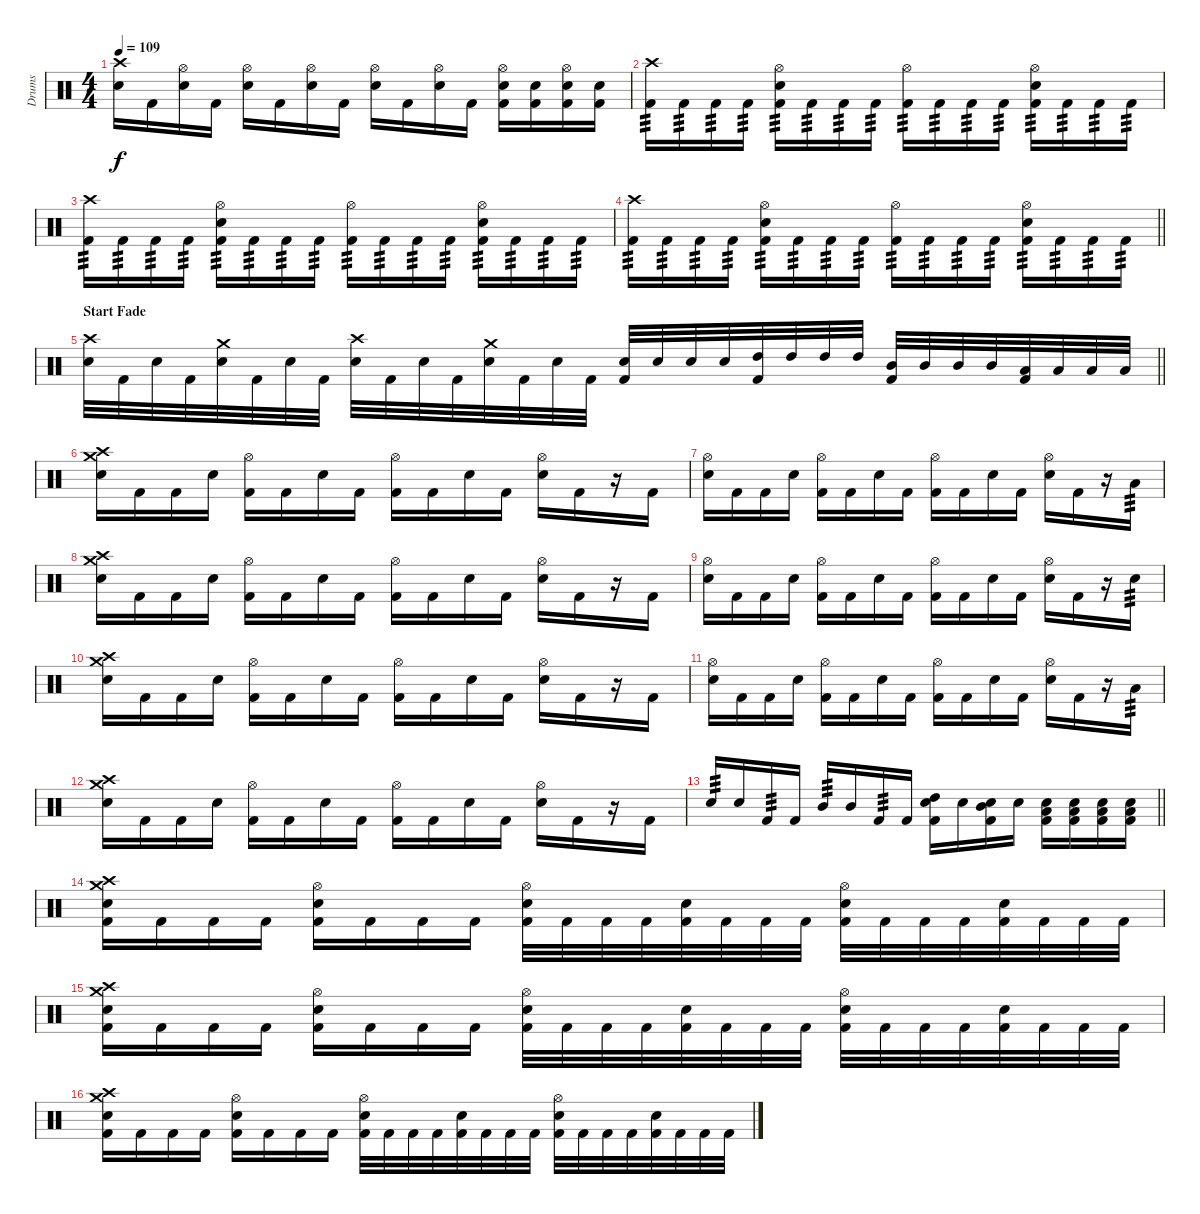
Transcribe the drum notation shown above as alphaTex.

\track ("Drums" "Drums") {instrument percussion}
\staff {score}
\articulation defaults
\ts (4 4)
\tempo 109
\clef neutral
\ks c
("Crash high (hit)" "Snare (hit) 2").16{dy f} "Kick (hit) 2".16 ("Hi-Hat (open)" "Snare (hit) 2").16 "Kick (hit) 2".16 ("Hi-Hat (open)" "Snare (hit) 2").16 "Kick (hit) 2".16 ("Hi-Hat (open)" "Snare (hit) 2").16 "Kick (hit) 2".16 ("Hi-Hat (open)" "Snare (hit) 2").16 "Kick (hit) 2".16 ("Hi-Hat (open)" "Snare (hit) 2").16 "Kick (hit) 2".16 ("Hi-Hat (open)" "Snare (hit) 2" "Kick (hit) 2").16 ("Snare (hit) 2" "Kick (hit) 2").16 ("Hi-Hat (open)" "Snare (hit) 2" "Kick (hit) 2").16 ("Snare (hit) 2" "Kick (hit) 2").16 |
("Crash high (hit)" "Kick (hit) 2").16{tp 3} "Kick (hit) 2".16{tp 3} "Kick (hit) 2".16{tp 3} "Kick (hit) 2".16{tp 3} ("Hi-Hat (open)" "Snare (hit) 2" "Kick (hit) 2").16{tp 3} "Kick (hit) 2".16{tp 3} "Kick (hit) 2".16{tp 3} "Kick (hit) 2".16{tp 3} ("Hi-Hat (open)" "Kick (hit) 2").16{tp 3} "Kick (hit) 2".16{tp 3} "Kick (hit) 2".16{tp 3} "Kick (hit) 2".16{tp 3} ("Hi-Hat (open)" "Snare (hit) 2" "Kick (hit) 2").16{tp 3} "Kick (hit) 2".16{tp 3} "Kick (hit) 2".16{tp 3} "Kick (hit) 2".16{tp 3} |
("Crash high (hit)" "Kick (hit) 2").16{tp 3} "Kick (hit) 2".16{tp 3} "Kick (hit) 2".16{tp 3} "Kick (hit) 2".16{tp 3} ("Hi-Hat (open)" "Snare (hit) 2" "Kick (hit) 2").16{tp 3} "Kick (hit) 2".16{tp 3} "Kick (hit) 2".16{tp 3} "Kick (hit) 2".16{tp 3} ("Hi-Hat (open)" "Kick (hit) 2").16{tp 3} "Kick (hit) 2".16{tp 3} "Kick (hit) 2".16{tp 3} "Kick (hit) 2".16{tp 3} ("Hi-Hat (open)" "Snare (hit) 2" "Kick (hit) 2").16{tp 3} "Kick (hit) 2".16{tp 3} "Kick (hit) 2".16{tp 3} "Kick (hit) 2".16{tp 3} |
\barLineRight lightlight
("Crash high (hit)" "Kick (hit) 2").16{tp 3} "Kick (hit) 2".16{tp 3} "Kick (hit) 2".16{tp 3} "Kick (hit) 2".16{tp 3} ("Hi-Hat (open)" "Snare (hit) 2" "Kick (hit) 2").16{tp 3} "Kick (hit) 2".16{tp 3} "Kick (hit) 2".16{tp 3} "Kick (hit) 2".16{tp 3} ("Hi-Hat (open)" "Kick (hit) 2").16{tp 3} "Kick (hit) 2".16{tp 3} "Kick (hit) 2".16{tp 3} "Kick (hit) 2".16{tp 3} ("Hi-Hat (open)" "Snare (hit) 2" "Kick (hit) 2").16{tp 3} "Kick (hit) 2".16{tp 3} "Kick (hit) 2".16{tp 3} "Kick (hit) 2".16{tp 3} |
\section ("" "Start Fade")
\barLineRight lightlight
("Crash high (hit)" "Snare (hit) 2").32 "Kick (hit) 2".32 "Snare (hit) 2".32 "Kick (hit) 2".32 ("Crash medium (hit)" "Snare (hit) 2").32 "Kick (hit) 2".32 "Snare (hit) 2".32 "Kick (hit) 2".32 ("Crash high (hit)" "Snare (hit) 2").32 "Kick (hit) 2".32 "Snare (hit) 2".32 "Kick (hit) 2".32 ("Crash medium (hit)" "Snare (hit) 2").32 "Kick (hit) 2".32 "Snare (hit) 2".32 "Kick (hit) 2".32 ("Snare (hit) 2" "Kick (hit) 2").32 "Snare (hit) 2".32 "Snare (hit) 2".32 "Snare (hit) 2".32 ("High Tom (hit)" "Kick (hit) 2").32 "High Tom (hit)".32 "High Tom (hit)".32 "High Tom (hit)".32 ("Mid Tom (hit)" "Kick (hit) 2").32 "Mid Tom (hit)".32 "Mid Tom (hit)".32 "Mid Tom (hit)".32 ("Low Tom (hit)" "Kick (hit) 2").32 "Low Tom (hit)".32 "Low Tom (hit)".32 "Low Tom (hit)".32 |
("Crash medium (hit)" "Crash high (hit)" "Snare (hit) 2").16 "Kick (hit) 2".16 "Kick (hit) 2".16 "Snare (hit) 2".16 ("Hi-Hat (open)" "Kick (hit) 2").16 "Kick (hit) 2".16 "Snare (hit) 2".16 "Kick (hit) 2".16 ("Hi-Hat (open)" "Kick (hit) 2").16 "Kick (hit) 2".16 "Snare (hit) 2".16 "Kick (hit) 2".16 ("Hi-Hat (open)" "Snare (hit) 2").16 "Kick (hit) 2".16 r.16 "Kick (hit) 2".16 |
("Hi-Hat (open)" "Snare (hit) 2").16 "Kick (hit) 2".16 "Kick (hit) 2".16 "Snare (hit) 2".16 ("Hi-Hat (open)" "Kick (hit) 2").16 "Kick (hit) 2".16 "Snare (hit) 2".16 "Kick (hit) 2".16 ("Hi-Hat (open)" "Kick (hit) 2").16 "Kick (hit) 2".16 "Snare (hit) 2".16 "Kick (hit) 2".16 ("Hi-Hat (open)" "Snare (hit) 2").16 "Kick (hit) 2".16 r.16 "Low Tom (hit)".16{tp 3} |
("Crash medium (hit)" "Crash high (hit)" "Snare (hit) 2").16 "Kick (hit) 2".16 "Kick (hit) 2".16 "Snare (hit) 2".16 ("Hi-Hat (open)" "Kick (hit) 2").16 "Kick (hit) 2".16 "Snare (hit) 2".16 "Kick (hit) 2".16 ("Hi-Hat (open)" "Kick (hit) 2").16 "Kick (hit) 2".16 "Snare (hit) 2".16 "Kick (hit) 2".16 ("Hi-Hat (open)" "Snare (hit) 2").16 "Kick (hit) 2".16 r.16 "Kick (hit) 2".16 |
("Hi-Hat (open)" "Snare (hit) 2").16 "Kick (hit) 2".16 "Kick (hit) 2".16 "Snare (hit) 2".16 ("Hi-Hat (open)" "Kick (hit) 2").16 "Kick (hit) 2".16 "Snare (hit) 2".16 "Kick (hit) 2".16 ("Hi-Hat (open)" "Kick (hit) 2").16 "Kick (hit) 2".16 "Snare (hit) 2".16 "Kick (hit) 2".16 ("Hi-Hat (open)" "Snare (hit) 2").16 "Kick (hit) 2".16 r.16 "Snare (hit) 2".16{tp 3} |
("Crash medium (hit)" "Crash high (hit)" "Snare (hit) 2").16 "Kick (hit) 2".16 "Kick (hit) 2".16 "Snare (hit) 2".16 ("Hi-Hat (open)" "Kick (hit) 2").16 "Kick (hit) 2".16 "Snare (hit) 2".16 "Kick (hit) 2".16 ("Hi-Hat (open)" "Kick (hit) 2").16 "Kick (hit) 2".16 "Snare (hit) 2".16 "Kick (hit) 2".16 ("Hi-Hat (open)" "Snare (hit) 2").16 "Kick (hit) 2".16 r.16 "Kick (hit) 2".16 |
("Hi-Hat (open)" "Snare (hit) 2").16 "Kick (hit) 2".16 "Kick (hit) 2".16 "Snare (hit) 2".16 ("Hi-Hat (open)" "Kick (hit) 2").16 "Kick (hit) 2".16 "Snare (hit) 2".16 "Kick (hit) 2".16 ("Hi-Hat (open)" "Kick (hit) 2").16 "Kick (hit) 2".16 "Snare (hit) 2".16 "Kick (hit) 2".16 ("Hi-Hat (open)" "Snare (hit) 2").16 "Kick (hit) 2".16 r.16 "Low Tom (hit)".16{tp 3} |
("Crash medium (hit)" "Crash high (hit)" "Snare (hit) 2").16 "Kick (hit) 2".16 "Kick (hit) 2".16 "Snare (hit) 2".16 ("Hi-Hat (open)" "Kick (hit) 2").16 "Kick (hit) 2".16 "Snare (hit) 2".16 "Kick (hit) 2".16 ("Hi-Hat (open)" "Kick (hit) 2").16 "Kick (hit) 2".16 "Snare (hit) 2".16 "Kick (hit) 2".16 ("Hi-Hat (open)" "Snare (hit) 2").16 "Kick (hit) 2".16 r.16 "Kick (hit) 2".16 |
\barLineRight lightlight "Snare (hit) 2".16{tp 3} "Snare (hit) 2".16 "Kick (hit) 2".16{tp 3} "Kick (hit) 2".16 "Mid Tom (hit)".16{tp 3} "Mid Tom (hit)".16 "Kick (hit) 2".16{tp 3} "Kick (hit) 2".16
("High Tom (hit)" "Snare (hit) 2" "Kick (hit) 2").16 "Snare (hit) 2".16 ("Mid Tom (hit)" "Snare (hit) 2" "Kick (hit) 2").16 "Snare (hit) 2".16 ("Low Tom (hit)" "Snare (hit) 2" "Kick (hit) 2").16 ("Low Tom (hit)" "Snare (hit) 2" "Kick (hit) 2").16 ("Low Tom (hit)" "Snare (hit) 2" "Kick (hit) 2").16 ("Low Tom (hit)" "Snare (hit) 2" "Kick (hit) 2").16 |
("Crash medium (hit)" "Crash high (hit)" "Snare (hit) 2" "Kick (hit) 2").16 "Kick (hit) 2".16 "Kick (hit) 2".16 "Kick (hit) 2".16 ("Hi-Hat (open)" "Snare (hit) 2" "Kick (hit) 2").16 "Kick (hit) 2".16 "Kick (hit) 2".16 "Kick (hit) 2".16 ("Hi-Hat (open)" "Snare (hit) 2" "Kick (hit) 2").32 "Kick (hit) 2".32 "Kick (hit) 2".32 "Kick (hit) 2".32 ("Snare (hit) 2" "Kick (hit) 2").32 "Kick (hit) 2".32 "Kick (hit) 2".32 "Kick (hit) 2".32 ("Hi-Hat (open)" "Snare (hit) 2" "Kick (hit) 2").32 "Kick (hit) 2".32 "Kick (hit) 2".32 "Kick (hit) 2".32 ("Snare (hit) 2" "Kick (hit) 2").32 "Kick (hit) 2".32 "Kick (hit) 2".32 "Kick (hit) 2".32 |
("Crash medium (hit)" "Crash high (hit)" "Snare (hit) 2" "Kick (hit) 2").16 "Kick (hit) 2".16 "Kick (hit) 2".16 "Kick (hit) 2".16 ("Hi-Hat (open)" "Snare (hit) 2" "Kick (hit) 2").16 "Kick (hit) 2".16 "Kick (hit) 2".16 "Kick (hit) 2".16 ("Hi-Hat (open)" "Snare (hit) 2" "Kick (hit) 2").32 "Kick (hit) 2".32 "Kick (hit) 2".32 "Kick (hit) 2".32 ("Snare (hit) 2" "Kick (hit) 2").32 "Kick (hit) 2".32 "Kick (hit) 2".32 "Kick (hit) 2".32 ("Hi-Hat (open)" "Snare (hit) 2" "Kick (hit) 2").32 "Kick (hit) 2".32 "Kick (hit) 2".32 "Kick (hit) 2".32 ("Snare (hit) 2" "Kick (hit) 2").32 "Kick (hit) 2".32 "Kick (hit) 2".32 "Kick (hit) 2".32 |
("Crash medium (hit)" "Crash high (hit)" "Snare (hit) 2" "Kick (hit) 2").16 "Kick (hit) 2".16 "Kick (hit) 2".16 "Kick (hit) 2".16 ("Hi-Hat (open)" "Snare (hit) 2" "Kick (hit) 2").16 "Kick (hit) 2".16 "Kick (hit) 2".16 "Kick (hit) 2".16 ("Hi-Hat (open)" "Snare (hit) 2" "Kick (hit) 2").32 "Kick (hit) 2".32 "Kick (hit) 2".32 "Kick (hit) 2".32 ("Snare (hit) 2" "Kick (hit) 2").32 "Kick (hit) 2".32 "Kick (hit) 2".32 "Kick (hit) 2".32 ("Hi-Hat (open)" "Snare (hit) 2" "Kick (hit) 2").32 "Kick (hit) 2".32 "Kick (hit) 2".32 "Kick (hit) 2".32 ("Snare (hit) 2" "Kick (hit) 2").32 "Kick (hit) 2".32 "Kick (hit) 2".32 "Kick (hit) 2".32
